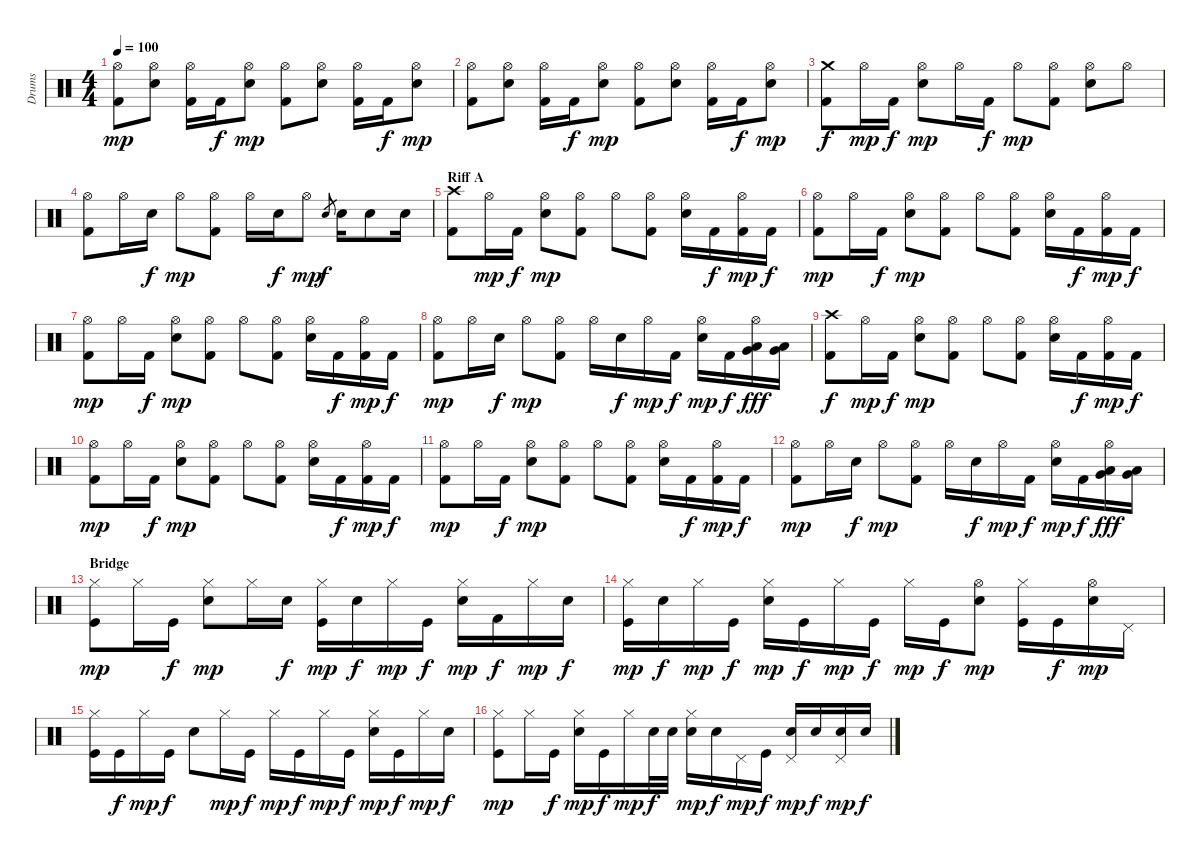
\track ("Drums" "Drums") {instrument percussion}
\staff {score}
\articulation defaults
\ts (4 4)
\tempo 100
\clef neutral
\ks c
("Hi-Hat (open)" "Kick (hit) 2").8{dy mp} ("Hi-Hat (open)" "Snare (hit) 2").8 ("Hi-Hat (open)" "Kick (hit) 2").16 "Kick (hit) 2".16{dy f} ("Hi-Hat (open)" "Snare (hit) 2").8{dy mp} ("Hi-Hat (open)" "Kick (hit) 2").8 ("Hi-Hat (open)" "Snare (hit) 2").8 ("Hi-Hat (open)" "Kick (hit) 2").16 "Kick (hit) 2".16{dy f} ("Hi-Hat (open)" "Snare (hit) 2").8{dy mp} |
("Hi-Hat (open)" "Kick (hit) 2").8 ("Hi-Hat (open)" "Snare (hit) 2").8 ("Hi-Hat (open)" "Kick (hit) 2").16 "Kick (hit) 2".16{dy f} ("Hi-Hat (open)" "Snare (hit) 2").8{dy mp} ("Hi-Hat (open)" "Kick (hit) 2").8 ("Hi-Hat (open)" "Snare (hit) 2").8 ("Hi-Hat (open)" "Kick (hit) 2").16 "Kick (hit) 2".16{dy f} ("Hi-Hat (open)" "Snare (hit) 2").8{dy mp} |
("Crash medium (hit)" "Kick (hit) 2").8{dy f} "Hi-Hat (open)".16{dy mp} "Kick (hit) 2".16{dy f} ("Hi-Hat (open)" "Snare (hit) 2").8{dy mp} "Hi-Hat (open)".16 "Kick (hit) 2".16{dy f} "Hi-Hat (open)".8{dy mp} ("Hi-Hat (open)" "Kick (hit) 2").8 ("Hi-Hat (open)" "Snare (hit) 2").8 "Hi-Hat (open)".8 |
("Hi-Hat (open)" "Kick (hit) 2").8 "Hi-Hat (open)".16 "Snare (hit) 2".16{dy f} "Hi-Hat (open)".8{dy mp} ("Hi-Hat (open)" "Kick (hit) 2").8 "Hi-Hat (open)".16 "Snare (hit) 2".16{dy f} "Hi-Hat (open)".8{dy mp} "Snare (hit) 2".8{gr dy f} "Snare (hit) 2".16 "Snare (hit) 2".8 "Snare (hit) 2".16 |
\section ("" "Riff A")
("Crash high (hit)" "Kick (hit) 2").8 "Hi-Hat (open)".16{dy mp} "Kick (hit) 2".16{dy f} ("Hi-Hat (open)" "Snare (hit) 2").8{dy mp} ("Hi-Hat (open)" "Kick (hit) 2").8 "Hi-Hat (open)".8 ("Hi-Hat (open)" "Kick (hit) 2").8 ("Hi-Hat (open)" "Snare (hit) 2").16 "Kick (hit) 2".16{dy f} ("Hi-Hat (open)" "Kick (hit) 2").16{dy mp} "Kick (hit) 2".16{dy f} |
("Hi-Hat (open)" "Kick (hit) 2").8{dy mp} "Hi-Hat (open)".16 "Kick (hit) 2".16{dy f} ("Hi-Hat (open)" "Snare (hit) 2").8{dy mp} ("Hi-Hat (open)" "Kick (hit) 2").8 "Hi-Hat (open)".8 ("Hi-Hat (open)" "Kick (hit) 2").8 ("Hi-Hat (open)" "Snare (hit) 2").16 "Kick (hit) 2".16{dy f} ("Hi-Hat (open)" "Kick (hit) 2").16{dy mp} "Kick (hit) 2".16{dy f} |
("Hi-Hat (open)" "Kick (hit) 2").8{dy mp} "Hi-Hat (open)".16 "Kick (hit) 2".16{dy f} ("Hi-Hat (open)" "Snare (hit) 2").8{dy mp} ("Hi-Hat (open)" "Kick (hit) 2").8 "Hi-Hat (open)".8 ("Hi-Hat (open)" "Kick (hit) 2").8 ("Hi-Hat (open)" "Snare (hit) 2").16 "Kick (hit) 2".16{dy f} ("Hi-Hat (open)" "Kick (hit) 2").16{dy mp} "Kick (hit) 2".16{dy f} |
("Hi-Hat (open)" "Kick (hit) 2").8{dy mp} "Hi-Hat (open)".16 "Snare (hit) 2".16{dy f} "Hi-Hat (open)".8{dy mp} ("Hi-Hat (open)" "Kick (hit) 2").8 "Hi-Hat (open)".16 "Snare (hit) 2".16{dy f} "Hi-Hat (open)".16{dy mp} "Kick (hit) 2".16{dy f} ("Hi-Hat (open)" "Snare (hit) 2").16{dy mp} "Kick (hit) 2".16{dy f} ("Hi-Hat (open)" "Low Floor Tom (hit)" "Very Low Tom (hit)").16{dy fff} ("Low Floor Tom (hit)" "Very Low Tom (hit)").16 |
("Crash high (hit)" "Kick (hit) 2").8{dy f} "Hi-Hat (open)".16{dy mp} "Kick (hit) 2".16{dy f} ("Hi-Hat (open)" "Snare (hit) 2").8{dy mp} ("Hi-Hat (open)" "Kick (hit) 2").8 "Hi-Hat (open)".8 ("Hi-Hat (open)" "Kick (hit) 2").8 ("Hi-Hat (open)" "Snare (hit) 2").16 "Kick (hit) 2".16{dy f} ("Hi-Hat (open)" "Kick (hit) 2").16{dy mp} "Kick (hit) 2".16{dy f} |
("Hi-Hat (open)" "Kick (hit) 2").8{dy mp} "Hi-Hat (open)".16 "Kick (hit) 2".16{dy f} ("Hi-Hat (open)" "Snare (hit) 2").8{dy mp} ("Hi-Hat (open)" "Kick (hit) 2").8 "Hi-Hat (open)".8 ("Hi-Hat (open)" "Kick (hit) 2").8 ("Hi-Hat (open)" "Snare (hit) 2").16 "Kick (hit) 2".16{dy f} ("Hi-Hat (open)" "Kick (hit) 2").16{dy mp} "Kick (hit) 2".16{dy f} |
("Hi-Hat (open)" "Kick (hit) 2").8{dy mp} "Hi-Hat (open)".16 "Kick (hit) 2".16{dy f} ("Hi-Hat (open)" "Snare (hit) 2").8{dy mp} ("Hi-Hat (open)" "Kick (hit) 2").8 "Hi-Hat (open)".8 ("Hi-Hat (open)" "Kick (hit) 2").8 ("Hi-Hat (open)" "Snare (hit) 2").16 "Kick (hit) 2".16{dy f} ("Hi-Hat (open)" "Kick (hit) 2").16{dy mp} "Kick (hit) 2".16{dy f} |
("Hi-Hat (open)" "Kick (hit) 2").8{dy mp} "Hi-Hat (open)".16 "Snare (hit) 2".16{dy f} "Hi-Hat (open)".8{dy mp} ("Hi-Hat (open)" "Kick (hit) 2").8 "Hi-Hat (open)".16 "Snare (hit) 2".16{dy f} "Hi-Hat (open)".16{dy mp} "Kick (hit) 2".16{dy f} ("Hi-Hat (open)" "Snare (hit) 2").16{dy mp} "Kick (hit) 2".16{dy f} ("Hi-Hat (open)" "Low Floor Tom (hit)" "Very Low Tom (hit)").16{dy fff} ("Low Floor Tom (hit)" "Very Low Tom (hit)").16 |
\section ("" "Bridge")
("Hi-Hat (closed)" "Kick (hit)").8{dy mp} "Hi-Hat (closed)".16 "Kick (hit)".16{dy f} ("Hi-Hat (closed)" "Snare (hit) 2").8{dy mp} "Hi-Hat (closed)".16 "Snare (hit) 2".16{dy f} ("Hi-Hat (closed)" "Kick (hit)").16{dy mp} "Snare (hit) 2".16{dy f} "Hi-Hat (closed)".16{dy mp} "Kick (hit)".16{dy f} ("Hi-Hat (closed)" "Snare (hit) 2").16{dy mp} "Kick (hit) 2".16{dy f} "Hi-Hat (closed)".16{dy mp} "Snare (hit) 2".16{dy f} |
("Hi-Hat (closed)" "Kick (hit)").16{dy mp} "Snare (hit) 2".16{dy f} "Hi-Hat (closed)".16{dy mp} "Kick (hit)".16{dy f} ("Hi-Hat (closed)" "Snare (hit) 2").16{dy mp} "Kick (hit)".16{dy f} "Hi-Hat (closed)".16{dy mp} "Kick (hit)".16{dy f} "Hi-Hat (closed)".16{dy mp} "Kick (hit)".16{dy f} ("Hi-Hat (open)" "Snare (hit) 2").8{dy mp} ("Hi-Hat (closed)" "Kick (hit)").16 "Kick (hit)".16{dy f} ("Hi-Hat (open)" "Snare (hit) 2").16{dy mp} "Pedal Hi-Hat (hit)".16 |
("Hi-Hat (closed)" "Kick (hit)").16 "Kick (hit)".16{dy f} "Hi-Hat (closed)".16{dy mp} "Kick (hit)".16{dy f} "Snare (hit) 2".8 "Hi-Hat (closed)".16{dy mp} "Kick (hit)".16{dy f} "Hi-Hat (closed)".16{dy mp} "Kick (hit)".16{dy f} "Hi-Hat (closed)".16{dy mp} "Kick (hit)".16{dy f} ("Hi-Hat (closed)" "Snare (hit) 2").16{dy mp} "Kick (hit)".16{dy f} "Hi-Hat (closed)".16{dy mp} "Snare (hit) 2".16{dy f} |
("Hi-Hat (closed)" "Kick (hit)").8{dy mp} "Hi-Hat (closed)".16 "Kick (hit)".16{dy f} ("Hi-Hat (closed)" "Snare (hit) 2").16{dy mp} "Kick (hit)".16{dy f} "Hi-Hat (closed)".16{dy mp} "Snare (hit) 2".32{dy f} "Snare (hit) 2".32 ("Hi-Hat (closed)" "Snare (hit) 2").16{dy mp} "Snare (hit) 2".16{dy f} "Pedal Hi-Hat (hit)".16{dy mp} "Kick (hit)".16{dy f} ("Pedal Hi-Hat (hit)" "Snare (hit) 2").16{dy mp} "Snare (hit) 2".16{dy f} ("Pedal Hi-Hat (hit)" "Snare (hit) 2").16{dy mp} "Snare (hit) 2".16{dy f}
